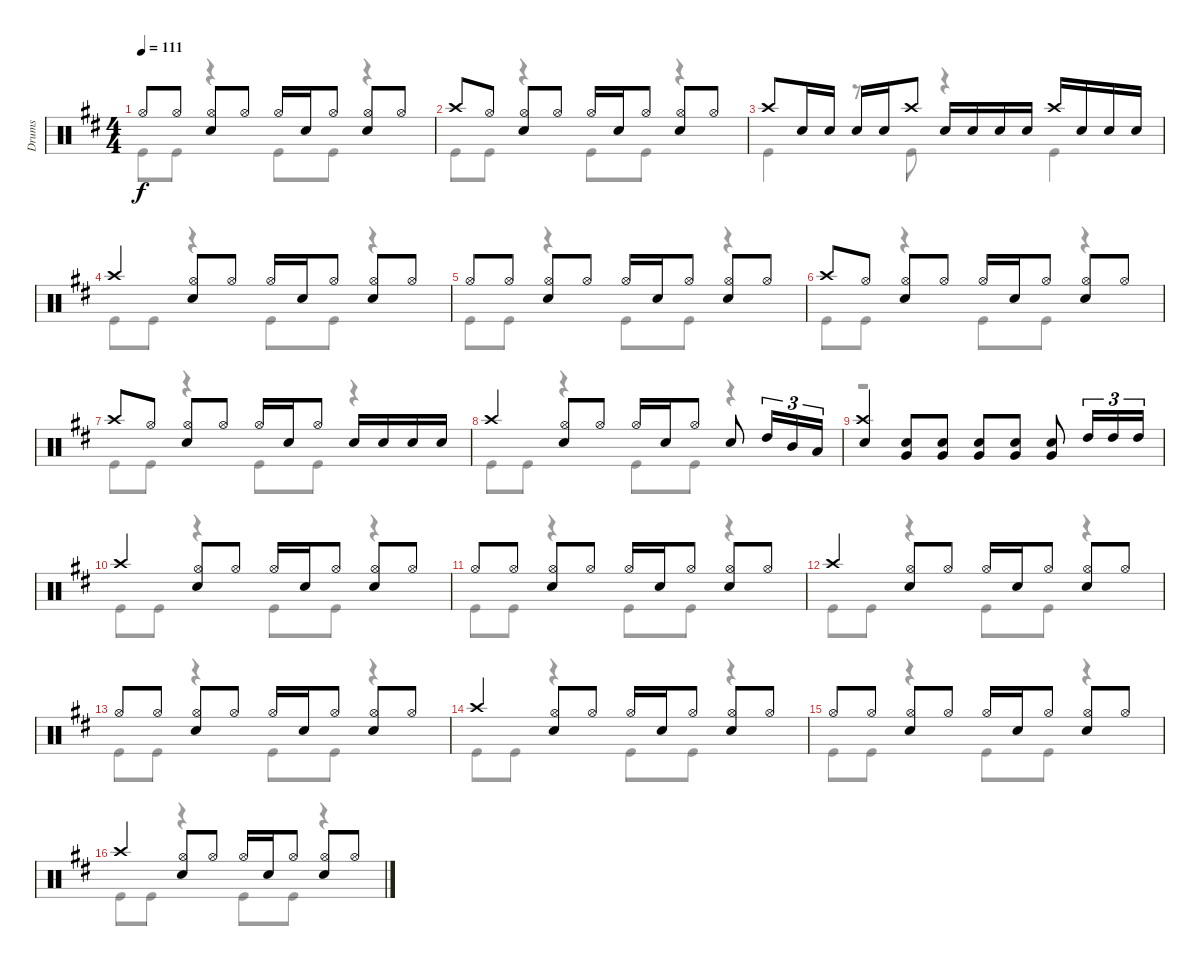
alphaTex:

\track ("Drums" "Drums") {instrument percussion}
\staff {score}
\articulation defaults
\voice
\ts (4 4)
\tempo 111
\clef neutral
\ks d "Hi-Hat (open)".8{dy f beam Up} "Hi-Hat (open)".8{beam Up}
("Snare (hit) 2" "Hi-Hat (open)").8{beam Up} "Hi-Hat (open)".8{beam Up} "Hi-Hat (open)".16{beam Up} "Snare (hit) 2".16{beam Up} "Hi-Hat (open)".8{beam Up} ("Hi-Hat (open)" "Snare (hit) 2").8{beam Up} "Hi-Hat (open)".8{beam Up} |
"Crash high (hit)".8{beam Up} "Hi-Hat (open)".8{beam Up} ("Snare (hit) 2" "Hi-Hat (open)").8{beam Up} "Hi-Hat (open)".8{beam Up} "Hi-Hat (open)".16{beam Up} "Snare (hit) 2".16{beam Up} "Hi-Hat (open)".8{beam Up} ("Hi-Hat (open)" "Snare (hit) 2").8{beam Up} "Hi-Hat (open)".8{beam Up} |
"Crash high (hit)".8{beam Up} "Snare (hit) 2".16{beam Up} "Snare (hit) 2".16{beam Up} "Snare (hit) 2".16{beam Up} "Snare (hit) 2".16{beam Up} "Crash high (hit)".8{beam Up} "Snare (hit) 2".16{beam Up} "Snare (hit) 2".16{beam Up} "Snare (hit) 2".16{beam Up} "Snare (hit) 2".16{beam Up} "Crash high (hit)".16{beam Up} "Snare (hit) 2".16{beam Up} "Snare (hit) 2".16{beam Up} "Snare (hit) 2".16{beam Up} |
"Crash high (hit)".4{beam Up} ("Snare (hit) 2" "Hi-Hat (open)").8{beam Up} "Hi-Hat (open)".8{beam Up} "Hi-Hat (open)".16{beam Up} "Snare (hit) 2".16{beam Up} "Hi-Hat (open)".8{beam Up} ("Hi-Hat (open)" "Snare (hit) 2").8{beam Up} "Hi-Hat (open)".8{beam Up} |
"Hi-Hat (open)".8{beam Up} "Hi-Hat (open)".8{beam Up} ("Snare (hit) 2" "Hi-Hat (open)").8{beam Up} "Hi-Hat (open)".8{beam Up} "Hi-Hat (open)".16{beam Up} "Snare (hit) 2".16{beam Up} "Hi-Hat (open)".8{beam Up} ("Hi-Hat (open)" "Snare (hit) 2").8{beam Up} "Hi-Hat (open)".8{beam Up} |
"Crash high (hit)".8{beam Up} "Hi-Hat (open)".8{beam Up} ("Snare (hit) 2" "Hi-Hat (open)").8{beam Up} "Hi-Hat (open)".8{beam Up} "Hi-Hat (open)".16{beam Up} "Snare (hit) 2".16{beam Up} "Hi-Hat (open)".8{beam Up} ("Hi-Hat (open)" "Snare (hit) 2").8{beam Up} "Hi-Hat (open)".8{beam Up} |
"Crash high (hit)".8{beam Up} "Hi-Hat (open)".8{beam Up} ("Snare (hit) 2" "Hi-Hat (open)").8{beam Up} "Hi-Hat (open)".8{beam Up} "Hi-Hat (open)".16{beam Up} "Snare (hit) 2".16{beam Up} "Hi-Hat (open)".8{beam Up} "Snare (hit) 2".16{beam Up} "Snare (hit) 2".16{beam Up} "Snare (hit) 2".16{beam Up} "Snare (hit) 2".16{beam Up} |
"Crash high (hit)".4{beam Up} ("Snare (hit) 2" "Hi-Hat (open)").8{beam Up} "Hi-Hat (open)".8{beam Up} "Hi-Hat (open)".16{beam Up} "Snare (hit) 2".16{beam Up} "Hi-Hat (open)".8{beam Up} "Snare (hit) 2".8{beam Up} "High Tom (hit)".16{tu (3 2) beam Up} "Mid Tom (hit)".16{tu (3 2) beam Up} "Low Tom (hit)".16{tu (3 2) beam Up} |
("Snare (hit) 2" "Crash high (hit)").4{beam Up} ("Snare (hit) 2" "Very Low Tom (hit)").8{beam Up} ("Snare (hit) 2" "Very Low Tom (hit)").8{beam Up} ("Snare (hit) 2" "Very Low Tom (hit)").8{beam Up} ("Snare (hit) 2" "Very Low Tom (hit)").8{beam Up} ("Snare (hit) 2" "Very Low Tom (hit)").8{beam Up} "High Tom (hit)".16{tu (3 2) beam Up} "High Tom (hit)".16{tu (3 2) beam Up} "High Tom (hit)".16{tu (3 2) beam Up} |
"Crash high (hit)".4{beam Up} ("Snare (hit) 2" "Hi-Hat (open)").8{beam Up} "Hi-Hat (open)".8{beam Up} "Hi-Hat (open)".16{beam Up} "Snare (hit) 2".16{beam Up} "Hi-Hat (open)".8{beam Up} ("Hi-Hat (open)" "Snare (hit) 2").8{beam Up} "Hi-Hat (open)".8{beam Up} |
"Hi-Hat (open)".8{beam Up} "Hi-Hat (open)".8{beam Up} ("Snare (hit) 2" "Hi-Hat (open)").8{beam Up} "Hi-Hat (open)".8{beam Up} "Hi-Hat (open)".16{beam Up} "Snare (hit) 2".16{beam Up} "Hi-Hat (open)".8{beam Up} ("Hi-Hat (open)" "Snare (hit) 2").8{beam Up} "Hi-Hat (open)".8{beam Up} |
"Crash high (hit)".4{beam Up} ("Snare (hit) 2" "Hi-Hat (open)").8{beam Up} "Hi-Hat (open)".8{beam Up} "Hi-Hat (open)".16{beam Up} "Snare (hit) 2".16{beam Up} "Hi-Hat (open)".8{beam Up} ("Hi-Hat (open)" "Snare (hit) 2").8{beam Up} "Hi-Hat (open)".8{beam Up} |
"Hi-Hat (open)".8{beam Up} "Hi-Hat (open)".8{beam Up} ("Snare (hit) 2" "Hi-Hat (open)").8{beam Up} "Hi-Hat (open)".8{beam Up} "Hi-Hat (open)".16{beam Up} "Snare (hit) 2".16{beam Up} "Hi-Hat (open)".8{beam Up} ("Hi-Hat (open)" "Snare (hit) 2").8{beam Up} "Hi-Hat (open)".8{beam Up} |
"Crash high (hit)".4{beam Up} ("Snare (hit) 2" "Hi-Hat (open)").8{beam Up} "Hi-Hat (open)".8{beam Up} "Hi-Hat (open)".16{beam Up} "Snare (hit) 2".16{beam Up} "Hi-Hat (open)".8{beam Up} ("Hi-Hat (open)" "Snare (hit) 2").8{beam Up} "Hi-Hat (open)".8{beam Up} |
"Hi-Hat (open)".8{beam Up} "Hi-Hat (open)".8{beam Up} ("Snare (hit) 2" "Hi-Hat (open)").8{beam Up} "Hi-Hat (open)".8{beam Up} "Hi-Hat (open)".16{beam Up} "Snare (hit) 2".16{beam Up} "Hi-Hat (open)".8{beam Up} ("Hi-Hat (open)" "Snare (hit) 2").8{beam Up} "Hi-Hat (open)".8{beam Up} |
"Crash high (hit)".4{beam Up} ("Snare (hit) 2" "Hi-Hat (open)").8{beam Up} "Hi-Hat (open)".8{beam Up} "Hi-Hat (open)".16{beam Up} "Snare (hit) 2".16{beam Up} "Hi-Hat (open)".8{beam Up} ("Hi-Hat (open)" "Snare (hit) 2").8{beam Up} "Hi-Hat (open)".8{beam Up}
\voice
\clef neutral
\ottava regular
\simile none
\ks d "Kick (hit)".8{dy f} "Kick (hit)".8
r.4 "Kick (hit)".8 "Kick (hit)".8 r.4 |
"Kick (hit)".8 "Kick (hit)".8 r.4 "Kick (hit)".8 "Kick (hit)".8 r.4 |
"Kick (hit)".4 r.8 "Kick (hit)".8 r.4 "Kick (hit)".4 |
"Kick (hit)".8 "Kick (hit)".8 r.4 "Kick (hit)".8 "Kick (hit)".8 r.4 |
"Kick (hit)".8 "Kick (hit)".8 r.4 "Kick (hit)".8 "Kick (hit)".8 r.4 |
"Kick (hit)".8 "Kick (hit)".8 r.4 "Kick (hit)".8 "Kick (hit)".8 r.4 |
"Kick (hit)".8 "Kick (hit)".8 r.4 "Kick (hit)".8 "Kick (hit)".8 r.4 |
"Kick (hit)".8 "Kick (hit)".8 r.4 "Kick (hit)".8 "Kick (hit)".8 r.4 |
r.1 |
"Kick (hit)".8 "Kick (hit)".8 r.4 "Kick (hit)".8 "Kick (hit)".8 r.4 |
"Kick (hit)".8 "Kick (hit)".8 r.4 "Kick (hit)".8 "Kick (hit)".8 r.4 |
"Kick (hit)".8 "Kick (hit)".8 r.4 "Kick (hit)".8 "Kick (hit)".8 r.4 |
"Kick (hit)".8 "Kick (hit)".8 r.4 "Kick (hit)".8 "Kick (hit)".8 r.4 |
"Kick (hit)".8 "Kick (hit)".8 r.4 "Kick (hit)".8 "Kick (hit)".8 r.4 |
"Kick (hit)".8 "Kick (hit)".8 r.4 "Kick (hit)".8 "Kick (hit)".8 r.4 |
"Kick (hit)".8 "Kick (hit)".8 r.4 "Kick (hit)".8 "Kick (hit)".8 r.4
